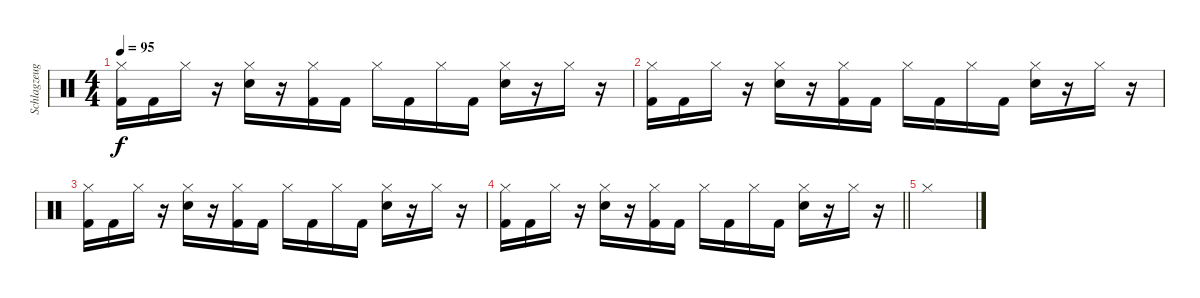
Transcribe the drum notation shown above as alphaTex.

\track ("Schlagzeug" "Schlagzeug") {instrument percussion}
\staff {score}
\articulation defaults
\ts (4 4)
\tempo 95
\clef neutral
\ks c
("Hi-Hat (closed)" "Kick (hit) 2").16{dy f} "Kick (hit) 2".16 "Hi-Hat (closed)".16 r.16 ("Hi-Hat (closed)" "Snare (hit) 2").16 r.16 ("Hi-Hat (closed)" "Kick (hit) 2").16 "Kick (hit) 2".16 "Hi-Hat (closed)".16 "Kick (hit) 2".16 "Hi-Hat (closed)".16 "Kick (hit) 2".16 ("Hi-Hat (closed)" "Snare (hit) 2").16 r.16 "Hi-Hat (closed)".16 r.16 |
("Hi-Hat (closed)" "Kick (hit) 2").16 "Kick (hit) 2".16 "Hi-Hat (closed)".16 r.16 ("Hi-Hat (closed)" "Snare (hit) 2").16 r.16 ("Hi-Hat (closed)" "Kick (hit) 2").16 "Kick (hit) 2".16 "Hi-Hat (closed)".16 "Kick (hit) 2".16 "Hi-Hat (closed)".16 "Kick (hit) 2".16 ("Hi-Hat (closed)" "Snare (hit) 2").16 r.16 "Hi-Hat (closed)".16 r.16 |
("Hi-Hat (closed)" "Kick (hit) 2").16 "Kick (hit) 2".16 "Hi-Hat (closed)".16 r.16 ("Hi-Hat (closed)" "Snare (hit) 2").16 r.16 ("Hi-Hat (closed)" "Kick (hit) 2").16 "Kick (hit) 2".16 "Hi-Hat (closed)".16 "Kick (hit) 2".16 "Hi-Hat (closed)".16 "Kick (hit) 2".16 ("Hi-Hat (closed)" "Snare (hit) 2").16 r.16 "Hi-Hat (closed)".16 r.16 |
\barLineRight lightlight
("Hi-Hat (closed)" "Kick (hit) 2").16 "Kick (hit) 2".16 "Hi-Hat (closed)".16 r.16 ("Hi-Hat (closed)" "Snare (hit) 2").16 r.16 ("Hi-Hat (closed)" "Kick (hit) 2").16 "Kick (hit) 2".16 "Hi-Hat (closed)".16 "Kick (hit) 2".16 "Hi-Hat (closed)".16 "Kick (hit) 2".16 ("Hi-Hat (closed)" "Snare (hit) 2").16 r.16 "Hi-Hat (closed)".16 r.16 |
"Hi-Hat (closed)".1
